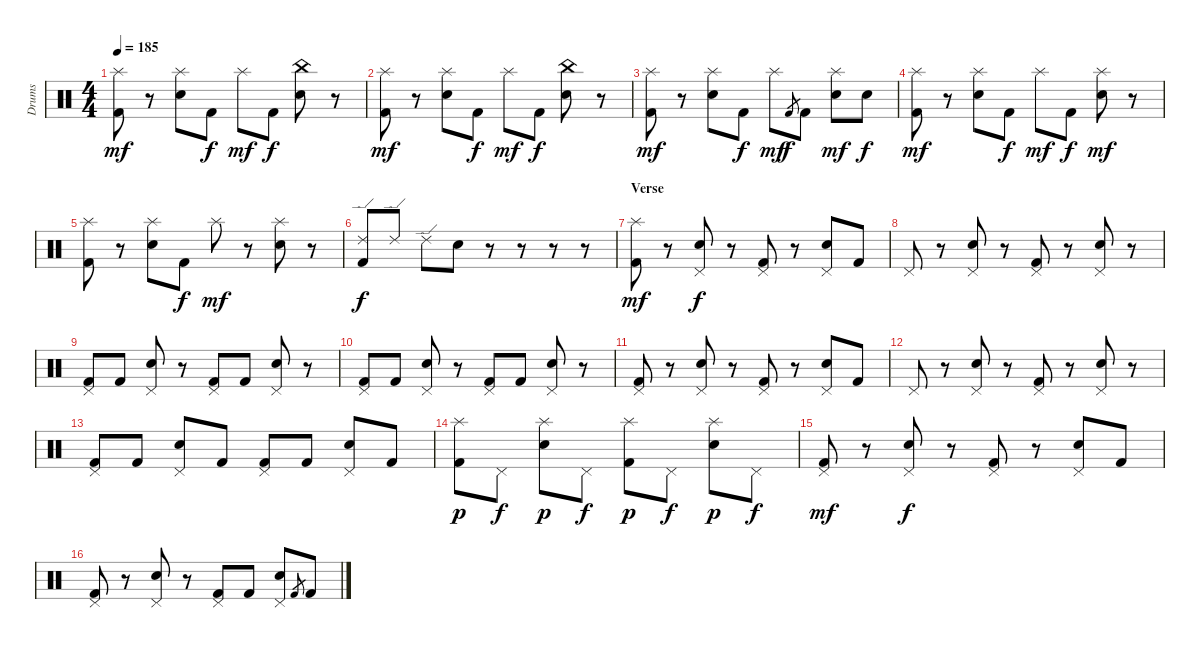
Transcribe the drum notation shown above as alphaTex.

\track ("Drums" "Drums") {instrument percussion}
\staff {score}
\articulation defaults
\ts (4 4)
\tempo 185
\clef neutral
\ks c
("Splash (hit)" "Kick (hit) 2").8{dy mf} r.8 ("Splash (hit)" "Electric Snare (hit)").8 "Kick (hit) 2".8{dy f} "Splash (hit)".8{dy mf} "Kick (hit) 2".8{dy f} ("China (hit)" "Electric Snare (hit)").8 r.8 |
("Splash (hit)" "Kick (hit) 2").8{dy mf} r.8 ("Splash (hit)" "Electric Snare (hit)").8 "Kick (hit) 2".8{dy f} "Splash (hit)".8{dy mf} "Kick (hit) 2".8{dy f} ("China (hit)" "Electric Snare (hit)").8 r.8 |
("Splash (hit)" "Kick (hit) 2").8{dy mf} r.8 ("Splash (hit)" "Electric Snare (hit)").8 "Kick (hit) 2".8{dy f} "Splash (hit)".8{dy mf} "Kick (hit) 2".8{gr dy f} "Kick (hit) 2".8 ("Splash (hit)" "Electric Snare (hit)").8{dy mf} "Electric Snare (hit)".8{dy f} |
("Splash (hit)" "Kick (hit) 2").8{dy mf} r.8 ("Splash (hit)" "Electric Snare (hit)").8 "Kick (hit) 2".8{dy f} "Splash (hit)".8{dy mf} "Kick (hit) 2".8{dy f} ("Splash (hit)" "Electric Snare (hit)").8{dy mf} r.8 |
("Splash (hit)" "Kick (hit) 2").8 r.8 ("Splash (hit)" "Electric Snare (hit)").8 "Kick (hit) 2".8{dy f} "Splash (hit)".8{dy mf} r.8 ("Splash (hit)" "Electric Snare (hit)").8 r.8 |
("Ride (edge) 2" "Kick (hit) 2").8{dy f} "Ride (edge) 2".8 "Ride (edge) 2".8 "Electric Snare (hit)".8 r.8 r.8 r.8 r.8 |
\section ("" "Verse")
("Splash (hit)" "Kick (hit) 2").8{dy mf} r.8 ("Pedal Hi-Hat (hit)" "Electric Snare (hit)").8{dy f} r.8 ("Pedal Hi-Hat (hit)" "Kick (hit) 2").8 r.8 ("Pedal Hi-Hat (hit)" "Electric Snare (hit)").8 "Kick (hit) 2".8 |
"Pedal Hi-Hat (hit)".8 r.8 ("Pedal Hi-Hat (hit)" "Electric Snare (hit)").8 r.8 ("Pedal Hi-Hat (hit)" "Kick (hit) 2").8 r.8 ("Pedal Hi-Hat (hit)" "Electric Snare (hit)").8 r.8 |
("Pedal Hi-Hat (hit)" "Kick (hit) 2").8 "Kick (hit) 2".8 ("Pedal Hi-Hat (hit)" "Electric Snare (hit)").8 r.8 ("Pedal Hi-Hat (hit)" "Kick (hit) 2").8 "Kick (hit) 2".8 ("Pedal Hi-Hat (hit)" "Electric Snare (hit)").8 r.8 |
("Pedal Hi-Hat (hit)" "Kick (hit) 2").8 "Kick (hit) 2".8 ("Pedal Hi-Hat (hit)" "Electric Snare (hit)").8 r.8 ("Pedal Hi-Hat (hit)" "Kick (hit) 2").8 "Kick (hit) 2".8 ("Pedal Hi-Hat (hit)" "Electric Snare (hit)").8 r.8 |
("Pedal Hi-Hat (hit)" "Kick (hit) 2").8 r.8 ("Pedal Hi-Hat (hit)" "Electric Snare (hit)").8 r.8 ("Pedal Hi-Hat (hit)" "Kick (hit) 2").8 r.8 ("Pedal Hi-Hat (hit)" "Electric Snare (hit)").8 "Kick (hit) 2".8 |
"Pedal Hi-Hat (hit)".8 r.8 ("Pedal Hi-Hat (hit)" "Electric Snare (hit)").8 r.8 ("Pedal Hi-Hat (hit)" "Kick (hit) 2").8 r.8 ("Pedal Hi-Hat (hit)" "Electric Snare (hit)").8 r.8 |
("Pedal Hi-Hat (hit)" "Kick (hit) 2").8 "Kick (hit) 2".8 ("Pedal Hi-Hat (hit)" "Electric Snare (hit)").8 "Kick (hit) 2".8 ("Pedal Hi-Hat (hit)" "Kick (hit) 2").8 "Kick (hit) 2".8 ("Pedal Hi-Hat (hit)" "Electric Snare (hit)").8 "Kick (hit) 2".8 |
("Splash (hit)" "Kick (hit) 2").8{dy p} "Pedal Hi-Hat (hit)".8{dy f} ("Splash (hit)" "Electric Snare (hit)").8{dy p} "Pedal Hi-Hat (hit)".8{dy f} ("Splash (hit)" "Kick (hit) 2").8{dy p} "Pedal Hi-Hat (hit)".8{dy f} ("Splash (hit)" "Electric Snare (hit)").8{dy p} "Pedal Hi-Hat (hit)".8{dy f} |
("Pedal Hi-Hat (hit)" "Kick (hit) 2").8{dy mf} r.8 ("Pedal Hi-Hat (hit)" "Electric Snare (hit)").8{dy f} r.8 ("Pedal Hi-Hat (hit)" "Kick (hit) 2").8 r.8 ("Pedal Hi-Hat (hit)" "Electric Snare (hit)").8 "Kick (hit) 2".8 |
("Pedal Hi-Hat (hit)" "Kick (hit) 2").8 r.8 ("Pedal Hi-Hat (hit)" "Electric Snare (hit)").8 r.8 ("Pedal Hi-Hat (hit)" "Kick (hit) 2").8 "Kick (hit) 2".8 ("Pedal Hi-Hat (hit)" "Electric Snare (hit)").8 "Kick (hit) 2".8{gr} "Kick (hit) 2".8
